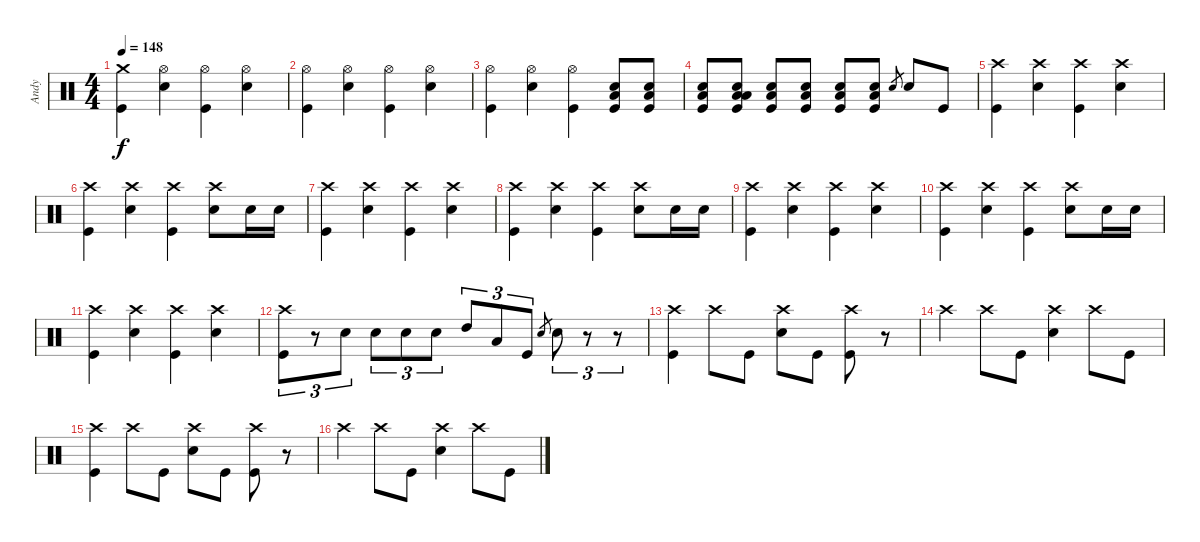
\track ("Andy" "Andy") {instrument percussion}
\staff {score}
\articulation defaults
\ts (4 4)
\tempo 148
\clef neutral
\ks c
("Kick (hit)" "Crash medium (hit)").4{dy f} ("Hi-Hat (open)" "Snare (hit) 2").4 ("Hi-Hat (open)" "Kick (hit)").4 ("Hi-Hat (open)" "Snare (hit) 2").4 |
("Kick (hit)" "Hi-Hat (open)").4 ("Snare (hit) 2" "Hi-Hat (open)").4 ("Kick (hit)" "Hi-Hat (open)").4 ("Snare (hit) 2" "Hi-Hat (open)").4 |
("Kick (hit)" "Hi-Hat (open)").4 ("Snare (hit) 2" "Hi-Hat (open)").4 ("Kick (hit)" "Hi-Hat (open)").4 ("Kick (hit)" "Snare (hit) 2" "Low Floor Tom (hit)").8 ("Kick (hit)" "Snare (hit) 2" "Low Floor Tom (hit)").8 |
("Low Floor Tom (hit)" "Kick (hit)" "Snare (hit) 2").8 ("Low Floor Tom (hit)" "Low Floor Tom (hit)" "Kick (hit)" "Snare (hit) 2").8 ("Low Floor Tom (hit)" "Kick (hit)" "Snare (hit) 2").8 ("Low Floor Tom (hit)" "Kick (hit)" "Snare (hit) 2").8 ("Low Floor Tom (hit)" "Kick (hit)" "Snare (hit) 2").8 ("Low Floor Tom (hit)" "Kick (hit)" "Snare (hit) 2").8 "Snare (hit) 2".8{gr} "Snare (hit) 2".8 "Kick (hit)".8 |
("Kick (hit)" "Crash high (hit)").4 ("Crash high (hit)" "Snare (hit) 2").4 ("Crash high (hit)" "Kick (hit)").4 ("Crash high (hit)" "Snare (hit) 2").4 |
("Kick (hit)" "Crash high (hit)").4 ("Crash high (hit)" "Snare (hit) 2").4 ("Crash high (hit)" "Kick (hit)").4 ("Crash high (hit)" "Snare (hit) 2").8 "Snare (hit) 2".16 "Snare (hit) 2".16 |
("Kick (hit)" "Crash high (hit)").4 ("Crash high (hit)" "Snare (hit) 2").4 ("Crash high (hit)" "Kick (hit)").4 ("Crash high (hit)" "Snare (hit) 2").4 |
("Kick (hit)" "Crash high (hit)").4 ("Crash high (hit)" "Snare (hit) 2").4 ("Crash high (hit)" "Kick (hit)").4 ("Crash high (hit)" "Snare (hit) 2").8 "Snare (hit) 2".16 "Snare (hit) 2".16 |
("Kick (hit)" "Crash high (hit)").4 ("Crash high (hit)" "Snare (hit) 2").4 ("Crash high (hit)" "Kick (hit)").4 ("Crash high (hit)" "Snare (hit) 2").4 |
("Kick (hit)" "Crash high (hit)").4 ("Crash high (hit)" "Snare (hit) 2").4 ("Crash high (hit)" "Kick (hit)").4 ("Crash high (hit)" "Snare (hit) 2").8 "Snare (hit) 2".16 "Snare (hit) 2".16 |
("Kick (hit)" "Crash high (hit)").4 ("Crash high (hit)" "Snare (hit) 2").4 ("Crash high (hit)" "Kick (hit)").4 ("Crash high (hit)" "Snare (hit) 2").4 |
("Kick (hit)" "Crash high (hit)").8{tu (3 2)} r.8{tu (3 2)} "Snare (hit) 2".8{tu (3 2)} "Snare (hit) 2".8{tu (3 2)} "Snare (hit) 2".8{tu (3 2)} "Snare (hit) 2".8{tu (3 2)} "High Tom (hit)".8{tu (3 2)} "Low Floor Tom (hit)".8{tu (3 2)} "Kick (hit)".8{tu (3 2)} "Snare (hit) 2".8{gr} "Snare (hit) 2".8{tu (3 2)} r.8{tu (3 2)} r.8{tu (3 2)} |
("Kick (hit)" "Crash high (hit)").4 "Crash high (hit)".8 "Kick (hit)".8 ("Snare (hit) 2" "Crash high (hit)").8 "Kick (hit)".8 ("Kick (hit)" "Crash high (hit)").8 r.8 |
"Crash high (hit)".4 "Crash high (hit)".8 "Kick (hit)".8 ("Snare (hit) 2" "Crash high (hit)").4 "Crash high (hit)".8 "Kick (hit)".8 |
("Kick (hit)" "Crash high (hit)").4 "Crash high (hit)".8 "Kick (hit)".8 ("Snare (hit) 2" "Crash high (hit)").8 "Kick (hit)".8 ("Kick (hit)" "Crash high (hit)").8 r.8 |
"Crash high (hit)".4 "Crash high (hit)".8 "Kick (hit)".8 ("Snare (hit) 2" "Crash high (hit)").4 "Crash high (hit)".8 "Kick (hit)".8
